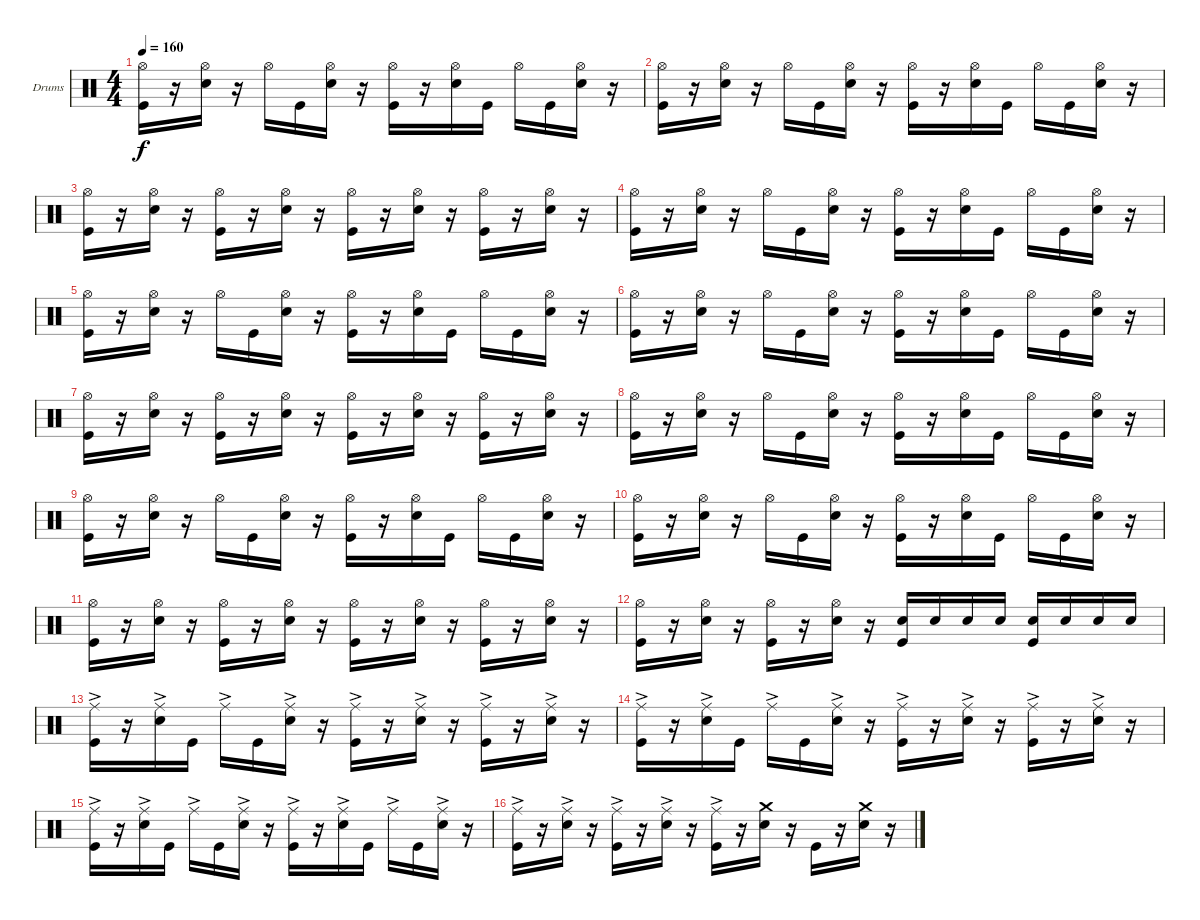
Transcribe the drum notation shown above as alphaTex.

\defaultSystemsLayout 4
\bracketExtendMode groupsimilarinstruments
\firstSystemTrackNameOrientation horizontal
\otherSystemsTrackNameOrientation horizontal
\track ("Drumkit" "Drums") {instrument percussion}
\staff {score}
\articulation defaults
\ts (4 4)
\tempo 160
\clef neutral
\ks c
("Hi-Hat (open)" "Kick (hit)").16{dy f} r.16 ("Hi-Hat (open)" "Snare (hit) 2").16 r.16 "Hi-Hat (open)".16 "Kick (hit)".16 ("Hi-Hat (open)" "Snare (hit) 2").16 r.16 ("Hi-Hat (open)" "Kick (hit)").16 r.16 ("Hi-Hat (open)" "Snare (hit) 2").16 "Kick (hit)".16 "Hi-Hat (open)".16 "Kick (hit)".16 ("Hi-Hat (open)" "Snare (hit) 2").16 r.16 |
("Hi-Hat (open)" "Kick (hit)").16 r.16 ("Hi-Hat (open)" "Snare (hit) 2").16 r.16 "Hi-Hat (open)".16 "Kick (hit)".16 ("Hi-Hat (open)" "Snare (hit) 2").16 r.16 ("Hi-Hat (open)" "Kick (hit)").16 r.16 ("Hi-Hat (open)" "Snare (hit) 2").16 "Kick (hit)".16 "Hi-Hat (open)".16 "Kick (hit)".16 ("Hi-Hat (open)" "Snare (hit) 2").16 r.16 |
("Hi-Hat (open)" "Kick (hit)").16 r.16 ("Hi-Hat (open)" "Snare (hit) 2").16 r.16 ("Hi-Hat (open)" "Kick (hit)").16 r.16 ("Hi-Hat (open)" "Snare (hit) 2").16 r.16 ("Hi-Hat (open)" "Kick (hit)").16 r.16 ("Hi-Hat (open)" "Snare (hit) 2").16 r.16 ("Hi-Hat (open)" "Kick (hit)").16 r.16 ("Hi-Hat (open)" "Snare (hit) 2").16 r.16 |
("Hi-Hat (open)" "Kick (hit)").16 r.16 ("Hi-Hat (open)" "Snare (hit) 2").16 r.16 "Hi-Hat (open)".16 "Kick (hit)".16 ("Hi-Hat (open)" "Snare (hit) 2").16 r.16 ("Hi-Hat (open)" "Kick (hit)").16 r.16 ("Hi-Hat (open)" "Snare (hit) 2").16 "Kick (hit)".16 "Hi-Hat (open)".16 "Kick (hit)".16 ("Hi-Hat (open)" "Snare (hit) 2").16 r.16 |
("Hi-Hat (open)" "Kick (hit)").16 r.16 ("Hi-Hat (open)" "Snare (hit) 2").16 r.16 "Hi-Hat (open)".16 "Kick (hit)".16 ("Hi-Hat (open)" "Snare (hit) 2").16 r.16 ("Hi-Hat (open)" "Kick (hit)").16 r.16 ("Hi-Hat (open)" "Snare (hit) 2").16 "Kick (hit)".16 "Hi-Hat (open)".16 "Kick (hit)".16 ("Hi-Hat (open)" "Snare (hit) 2").16 r.16 |
("Hi-Hat (open)" "Kick (hit)").16 r.16 ("Hi-Hat (open)" "Snare (hit) 2").16 r.16 "Hi-Hat (open)".16 "Kick (hit)".16 ("Hi-Hat (open)" "Snare (hit) 2").16 r.16 ("Hi-Hat (open)" "Kick (hit)").16 r.16 ("Hi-Hat (open)" "Snare (hit) 2").16 "Kick (hit)".16 "Hi-Hat (open)".16 "Kick (hit)".16 ("Hi-Hat (open)" "Snare (hit) 2").16 r.16 |
("Hi-Hat (open)" "Kick (hit)").16 r.16 ("Hi-Hat (open)" "Snare (hit) 2").16 r.16 ("Hi-Hat (open)" "Kick (hit)").16 r.16 ("Hi-Hat (open)" "Snare (hit) 2").16 r.16 ("Hi-Hat (open)" "Kick (hit)").16 r.16 ("Hi-Hat (open)" "Snare (hit) 2").16 r.16 ("Hi-Hat (open)" "Kick (hit)").16 r.16 ("Hi-Hat (open)" "Snare (hit) 2").16 r.16 |
("Hi-Hat (open)" "Kick (hit)").16 r.16 ("Hi-Hat (open)" "Snare (hit) 2").16 r.16 "Hi-Hat (open)".16 "Kick (hit)".16 ("Hi-Hat (open)" "Snare (hit) 2").16 r.16 ("Hi-Hat (open)" "Kick (hit)").16 r.16 ("Hi-Hat (open)" "Snare (hit) 2").16 "Kick (hit)".16 "Hi-Hat (open)".16 "Kick (hit)".16 ("Hi-Hat (open)" "Snare (hit) 2").16 r.16 |
("Hi-Hat (open)" "Kick (hit)").16 r.16 ("Hi-Hat (open)" "Snare (hit) 2").16 r.16 "Hi-Hat (open)".16 "Kick (hit)".16 ("Hi-Hat (open)" "Snare (hit) 2").16 r.16 ("Hi-Hat (open)" "Kick (hit)").16 r.16 ("Hi-Hat (open)" "Snare (hit) 2").16 "Kick (hit)".16 "Hi-Hat (open)".16 "Kick (hit)".16 ("Hi-Hat (open)" "Snare (hit) 2").16 r.16 |
("Hi-Hat (open)" "Kick (hit)").16 r.16 ("Hi-Hat (open)" "Snare (hit) 2").16 r.16 "Hi-Hat (open)".16 "Kick (hit)".16 ("Hi-Hat (open)" "Snare (hit) 2").16 r.16 ("Hi-Hat (open)" "Kick (hit)").16 r.16 ("Hi-Hat (open)" "Snare (hit) 2").16 "Kick (hit)".16 "Hi-Hat (open)".16 "Kick (hit)".16 ("Hi-Hat (open)" "Snare (hit) 2").16 r.16 |
("Hi-Hat (open)" "Kick (hit)").16 r.16 ("Hi-Hat (open)" "Snare (hit) 2").16 r.16 ("Hi-Hat (open)" "Kick (hit)").16 r.16 ("Hi-Hat (open)" "Snare (hit) 2").16 r.16 ("Hi-Hat (open)" "Kick (hit)").16 r.16 ("Hi-Hat (open)" "Snare (hit) 2").16 r.16 ("Hi-Hat (open)" "Kick (hit)").16 r.16 ("Hi-Hat (open)" "Snare (hit) 2").16 r.16 |
("Hi-Hat (open)" "Kick (hit)").16 r.16 ("Hi-Hat (open)" "Snare (hit) 2").16 r.16 ("Hi-Hat (open)" "Kick (hit)").16 r.16 ("Hi-Hat (open)" "Snare (hit) 2").16 r.16 ("Snare (hit) 2" "Kick (hit)").16 "Snare (hit) 2".16 "Snare (hit) 2".16 "Snare (hit) 2".16 ("Snare (hit) 2" "Kick (hit)").16 "Snare (hit) 2".16 "Snare (hit) 2".16 "Snare (hit) 2".16 |
("Ride (middle)"{ac} "Kick (hit)").16 r.16 ("Ride (middle)"{ac} "Snare (hit) 2").16 "Kick (hit)".16 "Ride (middle)"{ac}.16 "Kick (hit)".16 ("Ride (middle)"{ac} "Snare (hit) 2").16 r.16 ("Ride (middle)"{ac} "Kick (hit)").16 r.16 ("Ride (middle)"{ac} "Snare (hit) 2").16 r.16 ("Ride (middle)"{ac} "Kick (hit)").16 r.16 ("Ride (middle)"{ac} "Snare (hit) 2").16 r.16 |
("Ride (middle)"{ac} "Kick (hit)").16 r.16 ("Ride (middle)"{ac} "Snare (hit) 2").16 "Kick (hit)".16 "Ride (middle)"{ac}.16 "Kick (hit)".16 ("Ride (middle)"{ac} "Snare (hit) 2").16 r.16 ("Ride (middle)"{ac} "Kick (hit)").16 r.16 ("Ride (middle)"{ac} "Snare (hit) 2").16 r.16 ("Ride (middle)"{ac} "Kick (hit)").16 r.16 ("Ride (middle)"{ac} "Snare (hit) 2").16 r.16 |
("Ride (middle)"{ac} "Kick (hit)").16 r.16 ("Ride (middle)"{ac} "Snare (hit) 2").16 "Kick (hit)".16 "Ride (middle)"{ac}.16 "Kick (hit)".16 ("Ride (middle)"{ac} "Snare (hit) 2").16 r.16 ("Ride (middle)"{ac} "Kick (hit)").16 r.16 ("Ride (middle)"{ac} "Snare (hit) 2").16 "Kick (hit)".16 "Ride (middle)"{ac}.16 "Kick (hit)".16 ("Ride (middle)"{ac} "Snare (hit) 2").16 r.16 |
("Ride (middle)"{ac} "Kick (hit)").16 r.16 ("Ride (middle)"{ac} "Snare (hit) 2").16 r.16 ("Ride (middle)"{ac} "Kick (hit)").16 r.16 ("Ride (middle)"{ac} "Snare (hit) 2").16 r.16 ("Ride (middle)"{ac} "Kick (hit)").16 r.16 ("Crash medium (hit)" "Snare (hit) 2").16 r.16 "Kick (hit)".16 r.16 ("Crash medium (hit)" "Snare (hit) 2").16 r.16
